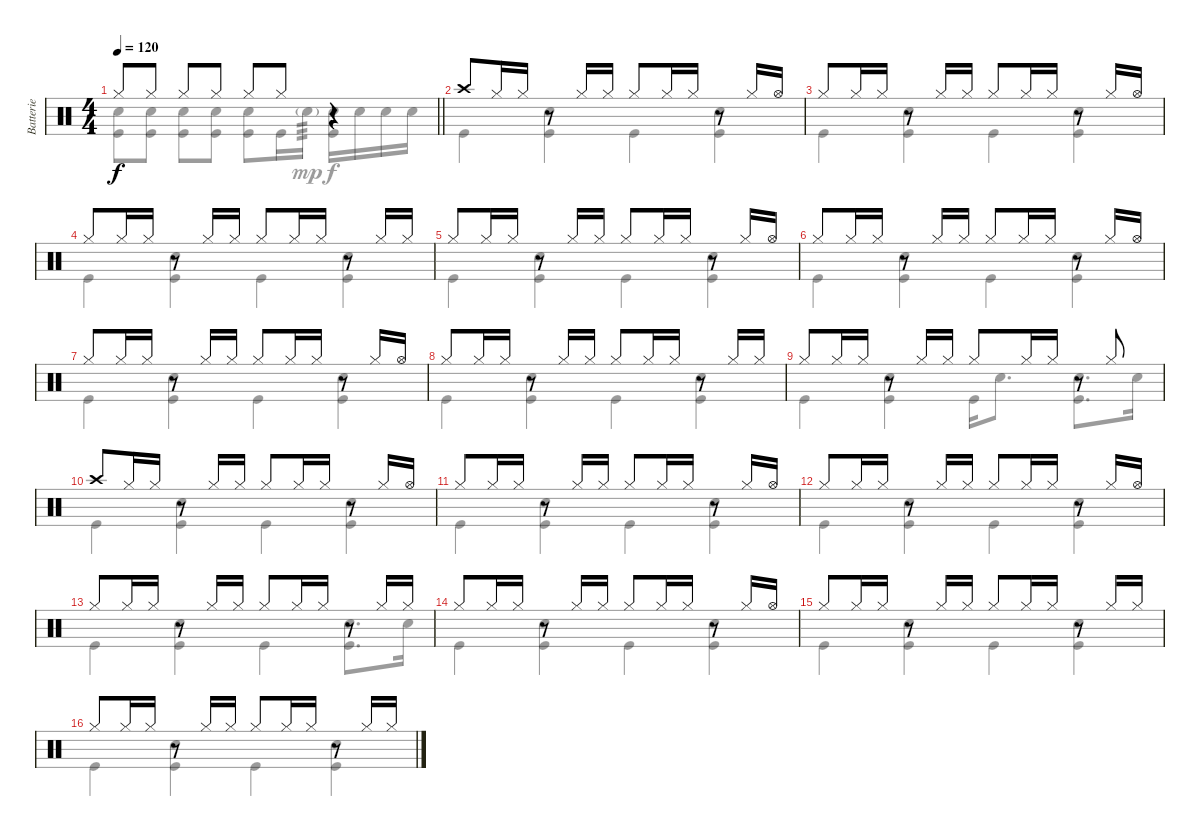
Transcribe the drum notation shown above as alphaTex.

\track ("Batterie" "Batterie") {instrument percussion}
\staff {score}
\articulation defaults
\voice
\ts (4 4)
\tempo 120
\clef neutral
\barLineRight lightlight
\ks c "Hi-Hat (closed)".8{dy f} "Hi-Hat (closed)".8 "Hi-Hat (closed)".8 "Hi-Hat (closed)".8 "Hi-Hat (closed)".8 "Hi-Hat (closed)".8
r.4 |
"Crash high (hit)".8 "Hi-Hat (closed)".16 "Hi-Hat (closed)".16 r.8 "Hi-Hat (closed)".16 "Hi-Hat (closed)".16 "Hi-Hat (closed)".8 "Hi-Hat (closed)".16 "Hi-Hat (closed)".16 r.8 "Hi-Hat (closed)".16 "Hi-Hat (open)".16 |
"Hi-Hat (closed)".8 "Hi-Hat (closed)".16 "Hi-Hat (closed)".16 r.8 "Hi-Hat (closed)".16 "Hi-Hat (closed)".16 "Hi-Hat (closed)".8 "Hi-Hat (closed)".16 "Hi-Hat (closed)".16 r.8 "Hi-Hat (closed)".16 "Hi-Hat (open)".16 |
"Hi-Hat (closed)".8 "Hi-Hat (closed)".16 "Hi-Hat (closed)".16 r.8 "Hi-Hat (closed)".16 "Hi-Hat (closed)".16 "Hi-Hat (closed)".8 "Hi-Hat (closed)".16 "Hi-Hat (closed)".16 r.8 "Hi-Hat (closed)".16 "Hi-Hat (closed)".16 |
"Hi-Hat (closed)".8 "Hi-Hat (closed)".16 "Hi-Hat (closed)".16 r.8 "Hi-Hat (closed)".16 "Hi-Hat (closed)".16 "Hi-Hat (closed)".8 "Hi-Hat (closed)".16 "Hi-Hat (closed)".16 r.8 "Hi-Hat (closed)".16 "Hi-Hat (open)".16 |
"Hi-Hat (closed)".8 "Hi-Hat (closed)".16 "Hi-Hat (closed)".16 r.8 "Hi-Hat (closed)".16 "Hi-Hat (closed)".16 "Hi-Hat (closed)".8 "Hi-Hat (closed)".16 "Hi-Hat (closed)".16 r.8 "Hi-Hat (closed)".16 "Hi-Hat (open)".16 |
"Hi-Hat (closed)".8 "Hi-Hat (closed)".16 "Hi-Hat (closed)".16 r.8 "Hi-Hat (closed)".16 "Hi-Hat (closed)".16 "Hi-Hat (closed)".8 "Hi-Hat (closed)".16 "Hi-Hat (closed)".16 r.8 "Hi-Hat (closed)".16 "Hi-Hat (open)".16 |
"Hi-Hat (closed)".8 "Hi-Hat (closed)".16 "Hi-Hat (closed)".16 r.8 "Hi-Hat (closed)".16 "Hi-Hat (closed)".16 "Hi-Hat (closed)".8 "Hi-Hat (closed)".16 "Hi-Hat (closed)".16 r.8 "Hi-Hat (closed)".16 "Hi-Hat (closed)".16 |
"Hi-Hat (closed)".8 "Hi-Hat (closed)".16 "Hi-Hat (closed)".16 r.8 "Hi-Hat (closed)".16 "Hi-Hat (closed)".16 "Hi-Hat (closed)".8 "Hi-Hat (closed)".16 "Hi-Hat (closed)".16 r.8 "Hi-Hat (closed)".8 |
"Crash high (hit)".8 "Hi-Hat (closed)".16 "Hi-Hat (closed)".16 r.8 "Hi-Hat (closed)".16 "Hi-Hat (closed)".16 "Hi-Hat (closed)".8 "Hi-Hat (closed)".16 "Hi-Hat (closed)".16 r.8 "Hi-Hat (closed)".16 "Hi-Hat (open)".16 |
"Hi-Hat (closed)".8 "Hi-Hat (closed)".16 "Hi-Hat (closed)".16 r.8 "Hi-Hat (closed)".16 "Hi-Hat (closed)".16 "Hi-Hat (closed)".8 "Hi-Hat (closed)".16 "Hi-Hat (closed)".16 r.8 "Hi-Hat (closed)".16 "Hi-Hat (open)".16 |
"Hi-Hat (closed)".8 "Hi-Hat (closed)".16 "Hi-Hat (closed)".16 r.8 "Hi-Hat (closed)".16 "Hi-Hat (closed)".16 "Hi-Hat (closed)".8 "Hi-Hat (closed)".16 "Hi-Hat (closed)".16 r.8 "Hi-Hat (closed)".16 "Hi-Hat (open)".16 |
"Hi-Hat (closed)".8 "Hi-Hat (closed)".16 "Hi-Hat (closed)".16 r.8 "Hi-Hat (closed)".16 "Hi-Hat (closed)".16 "Hi-Hat (closed)".8 "Hi-Hat (closed)".16 "Hi-Hat (closed)".16 r.8 "Hi-Hat (closed)".16 "Hi-Hat (closed)".16 |
"Hi-Hat (closed)".8 "Hi-Hat (closed)".16 "Hi-Hat (closed)".16 r.8 "Hi-Hat (closed)".16 "Hi-Hat (closed)".16 "Hi-Hat (closed)".8 "Hi-Hat (closed)".16 "Hi-Hat (closed)".16 r.8 "Hi-Hat (closed)".16 "Hi-Hat (open)".16 |
"Hi-Hat (closed)".8 "Hi-Hat (closed)".16 "Hi-Hat (closed)".16 r.8 "Hi-Hat (closed)".16 "Hi-Hat (closed)".16 "Hi-Hat (closed)".8 "Hi-Hat (closed)".16 "Hi-Hat (closed)".16 r.8 "Hi-Hat (closed)".16 "Hi-Hat (closed)".16 |
"Hi-Hat (closed)".8 "Hi-Hat (closed)".16 "Hi-Hat (closed)".16 r.8 "Hi-Hat (closed)".16 "Hi-Hat (closed)".16 "Hi-Hat (closed)".8 "Hi-Hat (closed)".16 "Hi-Hat (closed)".16 r.8 "Hi-Hat (closed)".16 "Hi-Hat (closed)".16
\voice
\clef neutral
\ottava regular
\simile none
\barLineRight lightlight
\ks c
("Snare (hit) 2" "Kick (hit)").8{dy f} ("Snare (hit) 2" "Kick (hit)").8 ("Snare (hit) 2" "Kick (hit)").8 ("Snare (hit) 2" "Kick (hit)").8 ("Snare (hit) 2" "Kick (hit)").8 "Kick (hit)".16 "Snare (hit) 2"{g}.16{tp 3 dy mp} ("Snare (hit) 2" "Kick (hit)").16{dy f} "Snare (hit) 2".16 "Snare (hit) 2".16 "Snare (hit) 2".16 |
"Kick (hit)".4 ("Snare (hit) 2" "Kick (hit)").4 "Kick (hit)".4 ("Snare (hit) 2" "Kick (hit)").4 |
"Kick (hit)".4 ("Snare (hit) 2" "Kick (hit)").4 "Kick (hit)".4 ("Snare (hit) 2" "Kick (hit)").4 |
"Kick (hit)".4 ("Snare (hit) 2" "Kick (hit)").4 "Kick (hit)".4 ("Snare (hit) 2" "Kick (hit)").4 |
"Kick (hit)".4 ("Snare (hit) 2" "Kick (hit)").4 "Kick (hit)".4 ("Snare (hit) 2" "Kick (hit)").4 |
"Kick (hit)".4 ("Snare (hit) 2" "Kick (hit)").4 "Kick (hit)".4 ("Snare (hit) 2" "Kick (hit)").4 |
"Kick (hit)".4 ("Snare (hit) 2" "Kick (hit)").4 "Kick (hit)".4 ("Snare (hit) 2" "Kick (hit)").4 |
"Kick (hit)".4 ("Snare (hit) 2" "Kick (hit)").4 "Kick (hit)".4 ("Snare (hit) 2" "Kick (hit)").4 |
"Kick (hit)".4 ("Snare (hit) 2" "Kick (hit)").4 "Kick (hit)".16 "Snare (hit) 2".8{d} ("Snare (hit) 2" "Kick (hit)").8{d} "Snare (hit) 2".16 |
"Kick (hit)".4 ("Snare (hit) 2" "Kick (hit)").4 "Kick (hit)".4 ("Snare (hit) 2" "Kick (hit)").4 |
"Kick (hit)".4 ("Snare (hit) 2" "Kick (hit)").4 "Kick (hit)".4 ("Snare (hit) 2" "Kick (hit)").4 |
"Kick (hit)".4 ("Snare (hit) 2" "Kick (hit)").4 "Kick (hit)".4 ("Snare (hit) 2" "Kick (hit)").4 |
"Kick (hit)".4 ("Snare (hit) 2" "Kick (hit)").4 "Kick (hit)".4 ("Snare (hit) 2" "Kick (hit)").8{d} "Snare (hit) 2".16 |
"Kick (hit)".4 ("Snare (hit) 2" "Kick (hit)").4 "Kick (hit)".4 ("Snare (hit) 2" "Kick (hit)").4 |
"Kick (hit)".4 ("Snare (hit) 2" "Kick (hit)").4 "Kick (hit)".4 ("Snare (hit) 2" "Kick (hit)").4 |
"Kick (hit)".4 ("Snare (hit) 2" "Kick (hit)").4 "Kick (hit)".4 ("Snare (hit) 2" "Kick (hit)").4
